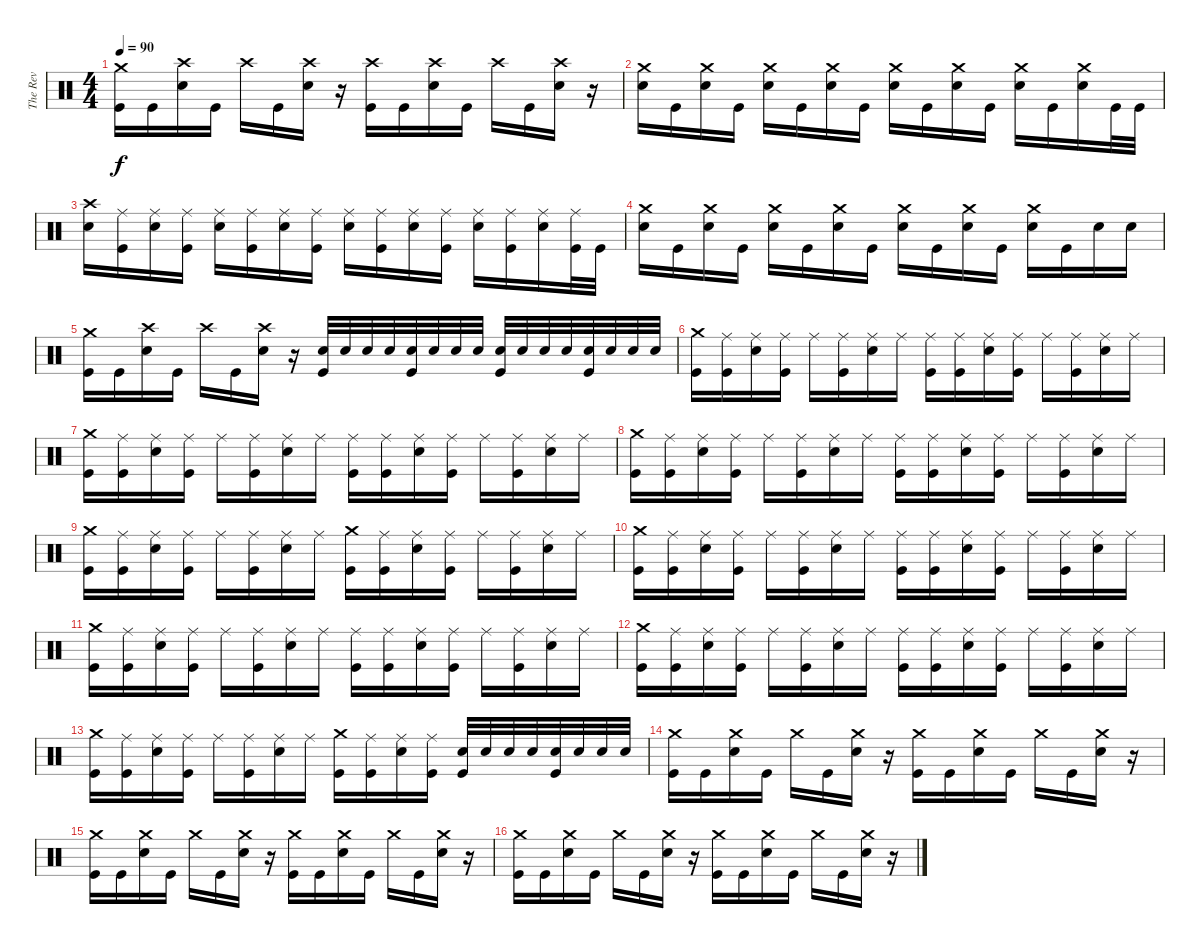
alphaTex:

\track ("The Rev" "The Rev") {instrument percussion}
\staff {score}
\articulation defaults
\ts (4 4)
\tempo 90
\clef neutral
\ks c
("Crash medium (hit)" "Kick (hit)").16{dy f} "Kick (hit)".16 ("Crash high (hit)" "Electric Snare (hit)").16 "Kick (hit)".16 "Crash high (hit)".16 "Kick (hit)".16 ("Crash high (hit)" "Electric Snare (hit)").16 r.16 ("Crash high (hit)" "Kick (hit)").16 "Kick (hit)".16 ("Crash high (hit)" "Electric Snare (hit)").16 "Kick (hit)".16 "Crash high (hit)".16 "Kick (hit)".16 ("Crash high (hit)" "Electric Snare (hit)").16 r.16 |
("Crash medium (hit)" "Electric Snare (hit)").16 "Kick (hit)".16 ("Crash medium (hit)" "Electric Snare (hit)").16 "Kick (hit)".16 ("Crash medium (hit)" "Electric Snare (hit)").16 "Kick (hit)".16 ("Crash medium (hit)" "Electric Snare (hit)").16 "Kick (hit)".16 ("Crash medium (hit)" "Electric Snare (hit)").16 "Kick (hit)".16 ("Crash medium (hit)" "Electric Snare (hit)").16 "Kick (hit)".16 ("Crash medium (hit)" "Electric Snare (hit)").16 "Kick (hit)".16 ("Crash medium (hit)" "Electric Snare (hit)").16 "Kick (hit)".32 "Kick (hit)".32 |
("Crash high (hit)" "Electric Snare (hit)").16 ("Ride (middle)" "Kick (hit)").16 ("Ride (middle)" "Electric Snare (hit)").16 ("Ride (middle)" "Kick (hit)").16 ("Ride (middle)" "Electric Snare (hit)").16 ("Ride (middle)" "Kick (hit)").16 ("Ride (middle)" "Electric Snare (hit)").16 ("Ride (middle)" "Kick (hit)").16 ("Ride (middle)" "Electric Snare (hit)").16 ("Ride (middle)" "Kick (hit)").16 ("Ride (middle)" "Electric Snare (hit)").16 ("Ride (middle)" "Kick (hit)").16 ("Ride (middle)" "Electric Snare (hit)").16 ("Ride (middle)" "Kick (hit)").16 ("Ride (middle)" "Electric Snare (hit)").16 ("Ride (middle)" "Kick (hit)").32 "Kick (hit)".32 |
("Crash medium (hit)" "Electric Snare (hit)").16 "Kick (hit)".16 ("Crash medium (hit)" "Electric Snare (hit)").16 "Kick (hit)".16 ("Crash medium (hit)" "Electric Snare (hit)").16 "Kick (hit)".16 ("Crash medium (hit)" "Electric Snare (hit)").16 "Kick (hit)".16 ("Crash medium (hit)" "Electric Snare (hit)").16 "Kick (hit)".16 ("Crash medium (hit)" "Electric Snare (hit)").16 "Kick (hit)".16 ("Crash medium (hit)" "Electric Snare (hit)").16 "Kick (hit)".16 "Electric Snare (hit)".16 "Electric Snare (hit)".16 |
("Crash medium (hit)" "Kick (hit)").16 "Kick (hit)".16 ("Crash high (hit)" "Electric Snare (hit)").16 "Kick (hit)".16 "Crash high (hit)".16 "Kick (hit)".16 ("Crash high (hit)" "Electric Snare (hit)").16 r.16 ("Electric Snare (hit)" "Kick (hit)").32 "Electric Snare (hit)".32 "Electric Snare (hit)".32 "Electric Snare (hit)".32 ("Electric Snare (hit)" "Kick (hit)").32 "Electric Snare (hit)".32 "Electric Snare (hit)".32 "Electric Snare (hit)".32 ("Electric Snare (hit)" "Kick (hit)").32 "Electric Snare (hit)".32 "Electric Snare (hit)".32 "Electric Snare (hit)".32 ("Electric Snare (hit)" "Kick (hit)").32 "Electric Snare (hit)".32 "Electric Snare (hit)".32 "Electric Snare (hit)".32 |
("Crash medium (hit)" "Kick (hit)").16 ("Ride (middle)" "Kick (hit)").16 ("Ride (middle)" "Electric Snare (hit)").16 ("Ride (middle)" "Kick (hit)").16 "Ride (middle)".16 ("Ride (middle)" "Kick (hit)").16 ("Ride (middle)" "Electric Snare (hit)").16 "Ride (middle)".16 ("Ride (middle)" "Kick (hit)").16 ("Ride (middle)" "Kick (hit)").16 ("Ride (middle)" "Electric Snare (hit)").16 ("Ride (middle)" "Kick (hit)").16 "Ride (middle)".16 ("Ride (middle)" "Kick (hit)").16 ("Ride (middle)" "Electric Snare (hit)").16 "Ride (middle)".16 |
("Crash medium (hit)" "Kick (hit)").16 ("Ride (middle)" "Kick (hit)").16 ("Ride (middle)" "Electric Snare (hit)").16 ("Ride (middle)" "Kick (hit)").16 "Ride (middle)".16 ("Ride (middle)" "Kick (hit)").16 ("Ride (middle)" "Electric Snare (hit)").16 "Ride (middle)".16 ("Ride (middle)" "Kick (hit)").16 ("Ride (middle)" "Kick (hit)").16 ("Ride (middle)" "Electric Snare (hit)").16 ("Ride (middle)" "Kick (hit)").16 "Ride (middle)".16 ("Ride (middle)" "Kick (hit)").16 ("Ride (middle)" "Electric Snare (hit)").16 "Ride (middle)".16 |
("Crash medium (hit)" "Kick (hit)").16 ("Ride (middle)" "Kick (hit)").16 ("Ride (middle)" "Electric Snare (hit)").16 ("Ride (middle)" "Kick (hit)").16 "Ride (middle)".16 ("Ride (middle)" "Kick (hit)").16 ("Ride (middle)" "Electric Snare (hit)").16 "Ride (middle)".16 ("Ride (middle)" "Kick (hit)").16 ("Ride (middle)" "Kick (hit)").16 ("Ride (middle)" "Electric Snare (hit)").16 ("Ride (middle)" "Kick (hit)").16 "Ride (middle)".16 ("Ride (middle)" "Kick (hit)").16 ("Ride (middle)" "Electric Snare (hit)").16 "Ride (middle)".16 |
("Crash medium (hit)" "Kick (hit)").16 ("Ride (middle)" "Kick (hit)").16 ("Ride (middle)" "Electric Snare (hit)").16 ("Ride (middle)" "Kick (hit)").16 "Ride (middle)".16 ("Ride (middle)" "Kick (hit)").16 ("Ride (middle)" "Electric Snare (hit)").16 "Ride (middle)".16 ("Crash medium (hit)" "Kick (hit)").16 ("Ride (middle)" "Kick (hit)").16 ("Ride (middle)" "Electric Snare (hit)").16 ("Ride (middle)" "Kick (hit)").16 "Ride (middle)".16 ("Ride (middle)" "Kick (hit)").16 ("Ride (middle)" "Electric Snare (hit)").16 "Ride (middle)".16 |
("Crash medium (hit)" "Kick (hit)").16 ("Ride (middle)" "Kick (hit)").16 ("Ride (middle)" "Electric Snare (hit)").16 ("Ride (middle)" "Kick (hit)").16 "Ride (middle)".16 ("Ride (middle)" "Kick (hit)").16 ("Ride (middle)" "Electric Snare (hit)").16 "Ride (middle)".16 ("Ride (middle)" "Kick (hit)").16 ("Ride (middle)" "Kick (hit)").16 ("Ride (middle)" "Electric Snare (hit)").16 ("Ride (middle)" "Kick (hit)").16 "Ride (middle)".16 ("Ride (middle)" "Kick (hit)").16 ("Ride (middle)" "Electric Snare (hit)").16 "Ride (middle)".16 |
("Crash medium (hit)" "Kick (hit)").16 ("Ride (middle)" "Kick (hit)").16 ("Ride (middle)" "Electric Snare (hit)").16 ("Ride (middle)" "Kick (hit)").16 "Ride (middle)".16 ("Ride (middle)" "Kick (hit)").16 ("Ride (middle)" "Electric Snare (hit)").16 "Ride (middle)".16 ("Ride (middle)" "Kick (hit)").16 ("Ride (middle)" "Kick (hit)").16 ("Ride (middle)" "Electric Snare (hit)").16 ("Ride (middle)" "Kick (hit)").16 "Ride (middle)".16 ("Ride (middle)" "Kick (hit)").16 ("Ride (middle)" "Electric Snare (hit)").16 "Ride (middle)".16 |
("Crash medium (hit)" "Kick (hit)").16 ("Ride (middle)" "Kick (hit)").16 ("Ride (middle)" "Electric Snare (hit)").16 ("Ride (middle)" "Kick (hit)").16 "Ride (middle)".16 ("Ride (middle)" "Kick (hit)").16 ("Ride (middle)" "Electric Snare (hit)").16 "Ride (middle)".16 ("Ride (middle)" "Kick (hit)").16 ("Ride (middle)" "Kick (hit)").16 ("Ride (middle)" "Electric Snare (hit)").16 ("Ride (middle)" "Kick (hit)").16 "Ride (middle)".16 ("Ride (middle)" "Kick (hit)").16 ("Ride (middle)" "Electric Snare (hit)").16 "Ride (middle)".16 |
("Crash medium (hit)" "Kick (hit)").16 ("Ride (middle)" "Kick (hit)").16 ("Ride (middle)" "Electric Snare (hit)").16 ("Ride (middle)" "Kick (hit)").16 "Ride (middle)".16 ("Ride (middle)" "Kick (hit)").16 ("Ride (middle)" "Electric Snare (hit)").16 "Ride (middle)".16 ("Crash medium (hit)" "Kick (hit)").16 ("Ride (middle)" "Kick (hit)").16 ("Ride (middle)" "Electric Snare (hit)").16 ("Ride (middle)" "Kick (hit)").16 ("Electric Snare (hit)" "Kick (hit)").32 "Electric Snare (hit)".32 "Electric Snare (hit)".32 "Electric Snare (hit)".32 ("Electric Snare (hit)" "Kick (hit)").32 "Electric Snare (hit)".32 "Electric Snare (hit)".32 "Electric Snare (hit)".32 |
("Crash medium (hit)" "Kick (hit)").16 "Kick (hit)".16 ("Crash medium (hit)" "Electric Snare (hit)").16 "Kick (hit)".16 "Crash medium (hit)".16 "Kick (hit)".16 ("Crash medium (hit)" "Electric Snare (hit)").16 r.16 ("Crash medium (hit)" "Kick (hit)").16 "Kick (hit)".16 ("Crash medium (hit)" "Electric Snare (hit)").16 "Kick (hit)".16 "Crash medium (hit)".16 "Kick (hit)".16 ("Crash medium (hit)" "Electric Snare (hit)").16 r.16 |
("Crash medium (hit)" "Kick (hit)").16 "Kick (hit)".16 ("Crash medium (hit)" "Electric Snare (hit)").16 "Kick (hit)".16 "Crash medium (hit)".16 "Kick (hit)".16 ("Crash medium (hit)" "Electric Snare (hit)").16 r.16 ("Crash medium (hit)" "Kick (hit)").16 "Kick (hit)".16 ("Crash medium (hit)" "Electric Snare (hit)").16 "Kick (hit)".16 "Crash medium (hit)".16 "Kick (hit)".16 ("Crash medium (hit)" "Electric Snare (hit)").16 r.16 |
("Crash medium (hit)" "Kick (hit)").16 "Kick (hit)".16 ("Crash medium (hit)" "Electric Snare (hit)").16 "Kick (hit)".16 "Crash medium (hit)".16 "Kick (hit)".16 ("Crash medium (hit)" "Electric Snare (hit)").16 r.16 ("Crash medium (hit)" "Kick (hit)").16 "Kick (hit)".16 ("Crash medium (hit)" "Electric Snare (hit)").16 "Kick (hit)".16 "Crash medium (hit)".16 "Kick (hit)".16 ("Crash medium (hit)" "Electric Snare (hit)").16 r.16
